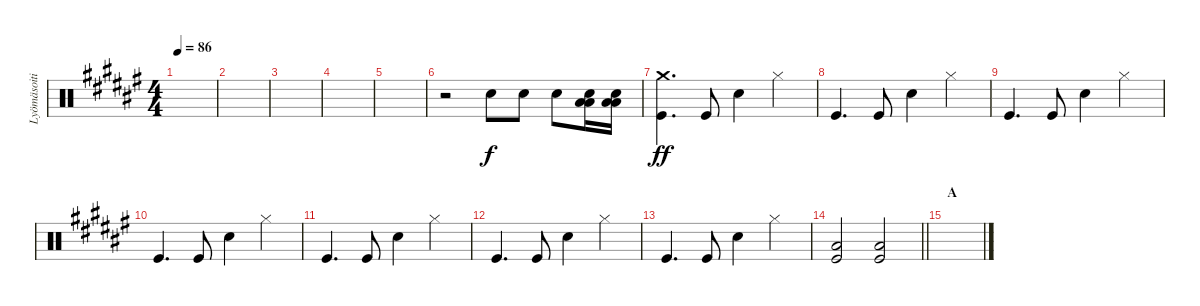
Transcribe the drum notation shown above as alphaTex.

\track ("Lyömäsoitin" "Lyömäsoiti") {instrument percussion}
\staff {score}
\articulation defaults
\ts (4 4)
\tempo 86
\clef neutral
\ks f#
|
|
|
|
|
r.2 "Snare (hit) 2".8 "Snare (hit) 2".8 "Snare (hit) 2".8 ("Snare (hit) 2" "Low Tom (hit)" "Low Floor Tom (hit)").16 ("Snare (hit) 2" "Low Tom (hit)" "Low Floor Tom (hit)").16 |
("Crash medium (hit)" "Kick (hit)").4{d dy ff} "Kick (hit)".8 "Snare (hit) 2".4 "Hi-Hat (closed)".4 |
"Kick (hit)".4{d} "Kick (hit)".8 "Snare (hit) 2".4 "Hi-Hat (closed)".4 |
"Kick (hit)".4{d} "Kick (hit)".8 "Snare (hit) 2".4 "Hi-Hat (closed)".4 |
"Kick (hit)".4{d} "Kick (hit)".8 "Snare (hit) 2".4 "Hi-Hat (closed)".4 |
"Kick (hit)".4{d} "Kick (hit)".8 "Snare (hit) 2".4 "Hi-Hat (closed)".4 |
"Kick (hit)".4{d} "Kick (hit)".8 "Snare (hit) 2".4 "Hi-Hat (closed)".4 |
"Kick (hit)".4{d} "Kick (hit)".8 "Snare (hit) 2".4 "Hi-Hat (closed)".4 |
\barLineRight lightlight
("Kick (hit)" "Low Floor Tom (hit)").2 ("Kick (hit)" "Low Floor Tom (hit)").2 |
\section ("" "A")
